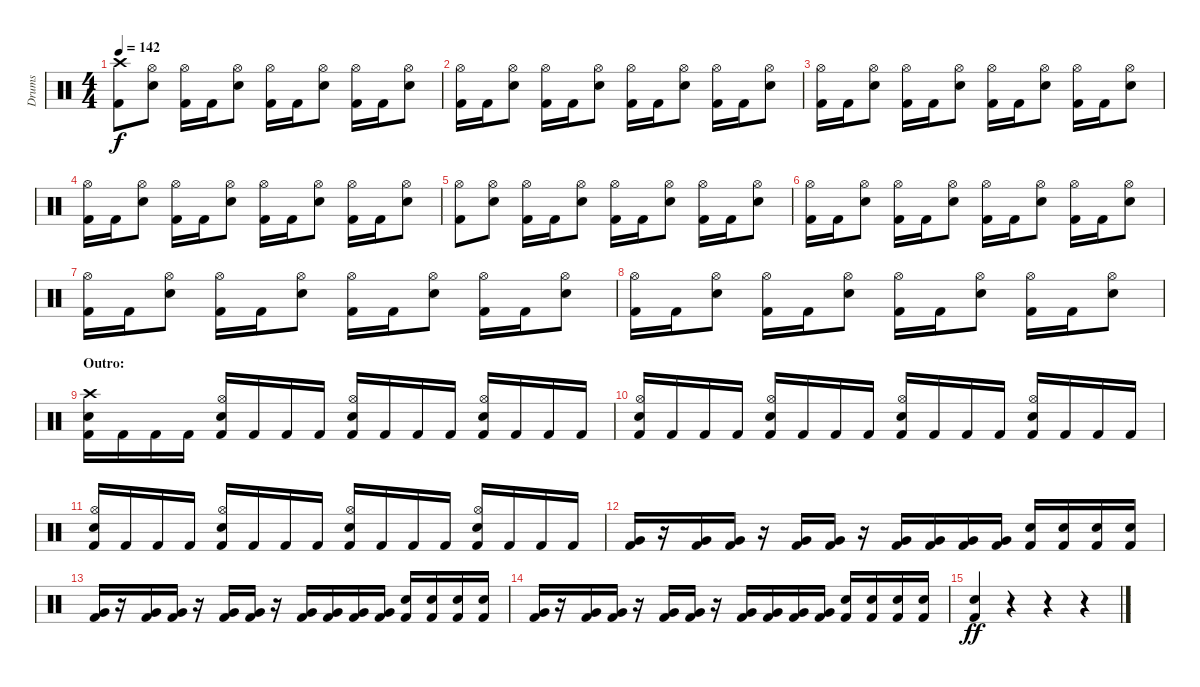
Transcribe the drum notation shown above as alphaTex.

\track ("Drums" "Drums") {instrument percussion}
\staff {score}
\articulation defaults
\ts (4 4)
\tempo 142
\clef neutral
\ks c
("Crash high (hit)" "Kick (hit) 2").8{dy f} ("Hi-Hat (open)" "Electric Snare (hit)").8 ("Hi-Hat (open)" "Kick (hit) 2").16 "Kick (hit) 2".16 ("Hi-Hat (open)" "Electric Snare (hit)").8 ("Hi-Hat (open)" "Kick (hit) 2").16 "Kick (hit) 2".16 ("Hi-Hat (open)" "Electric Snare (hit)").8 ("Hi-Hat (open)" "Kick (hit) 2").16 "Kick (hit) 2".16 ("Hi-Hat (open)" "Electric Snare (hit)").8 |
("Hi-Hat (open)" "Kick (hit) 2").16 "Kick (hit) 2".16 ("Hi-Hat (open)" "Electric Snare (hit)").8 ("Hi-Hat (open)" "Kick (hit) 2").16 "Kick (hit) 2".16 ("Hi-Hat (open)" "Electric Snare (hit)").8 ("Hi-Hat (open)" "Kick (hit) 2").16 "Kick (hit) 2".16 ("Hi-Hat (open)" "Electric Snare (hit)").8 ("Hi-Hat (open)" "Kick (hit) 2").16 "Kick (hit) 2".16 ("Hi-Hat (open)" "Electric Snare (hit)").8 |
("Hi-Hat (open)" "Kick (hit) 2").16 "Kick (hit) 2".16 ("Hi-Hat (open)" "Electric Snare (hit)").8 ("Hi-Hat (open)" "Kick (hit) 2").16 "Kick (hit) 2".16 ("Hi-Hat (open)" "Electric Snare (hit)").8 ("Hi-Hat (open)" "Kick (hit) 2").16 "Kick (hit) 2".16 ("Hi-Hat (open)" "Electric Snare (hit)").8 ("Hi-Hat (open)" "Kick (hit) 2").16 "Kick (hit) 2".16 ("Hi-Hat (open)" "Electric Snare (hit)").8 |
("Hi-Hat (open)" "Kick (hit) 2").16 "Kick (hit) 2".16 ("Hi-Hat (open)" "Electric Snare (hit)").8 ("Hi-Hat (open)" "Kick (hit) 2").16 "Kick (hit) 2".16 ("Hi-Hat (open)" "Electric Snare (hit)").8 ("Hi-Hat (open)" "Kick (hit) 2").16 "Kick (hit) 2".16 ("Hi-Hat (open)" "Electric Snare (hit)").8 ("Hi-Hat (open)" "Kick (hit) 2").16 "Kick (hit) 2".16 ("Hi-Hat (open)" "Electric Snare (hit)").8 |
("Hi-Hat (open)" "Kick (hit) 2").8 ("Hi-Hat (open)" "Electric Snare (hit)").8 ("Hi-Hat (open)" "Kick (hit) 2").16 "Kick (hit) 2".16 ("Hi-Hat (open)" "Electric Snare (hit)").8 ("Hi-Hat (open)" "Kick (hit) 2").16 "Kick (hit) 2".16 ("Hi-Hat (open)" "Electric Snare (hit)").8 ("Hi-Hat (open)" "Kick (hit) 2").16 "Kick (hit) 2".16 ("Hi-Hat (open)" "Electric Snare (hit)").8 |
("Hi-Hat (open)" "Kick (hit) 2").16 "Kick (hit) 2".16 ("Hi-Hat (open)" "Electric Snare (hit)").8 ("Hi-Hat (open)" "Kick (hit) 2").16 "Kick (hit) 2".16 ("Hi-Hat (open)" "Electric Snare (hit)").8 ("Hi-Hat (open)" "Kick (hit) 2").16 "Kick (hit) 2".16 ("Hi-Hat (open)" "Electric Snare (hit)").8 ("Hi-Hat (open)" "Kick (hit) 2").16 "Kick (hit) 2".16 ("Hi-Hat (open)" "Electric Snare (hit)").8 |
("Hi-Hat (open)" "Kick (hit) 2").16 "Kick (hit) 2".16 ("Hi-Hat (open)" "Electric Snare (hit)").8 ("Hi-Hat (open)" "Kick (hit) 2").16 "Kick (hit) 2".16 ("Hi-Hat (open)" "Electric Snare (hit)").8 ("Hi-Hat (open)" "Kick (hit) 2").16 "Kick (hit) 2".16 ("Hi-Hat (open)" "Electric Snare (hit)").8 ("Hi-Hat (open)" "Kick (hit) 2").16 "Kick (hit) 2".16 ("Hi-Hat (open)" "Electric Snare (hit)").8 |
("Hi-Hat (open)" "Kick (hit) 2").16 "Kick (hit) 2".16 ("Hi-Hat (open)" "Electric Snare (hit)").8 ("Hi-Hat (open)" "Kick (hit) 2").16 "Kick (hit) 2".16 ("Hi-Hat (open)" "Electric Snare (hit)").8 ("Hi-Hat (open)" "Kick (hit) 2").16 "Kick (hit) 2".16 ("Hi-Hat (open)" "Electric Snare (hit)").8 ("Hi-Hat (open)" "Kick (hit) 2").16 "Kick (hit) 2".16 ("Hi-Hat (open)" "Electric Snare (hit)").8 |
\section ("" "Outro:")
("Crash high (hit)" "Electric Snare (hit)" "Kick (hit) 2").16 "Kick (hit) 2".16 "Kick (hit) 2".16 "Kick (hit) 2".16 ("Hi-Hat (open)" "Electric Snare (hit)" "Kick (hit) 2").16 "Kick (hit) 2".16 "Kick (hit) 2".16 "Kick (hit) 2".16 ("Hi-Hat (open)" "Electric Snare (hit)" "Kick (hit) 2").16 "Kick (hit) 2".16 "Kick (hit) 2".16 "Kick (hit) 2".16 ("Hi-Hat (open)" "Electric Snare (hit)" "Kick (hit) 2").16 "Kick (hit) 2".16 "Kick (hit) 2".16 "Kick (hit) 2".16 |
("Hi-Hat (open)" "Electric Snare (hit)" "Kick (hit) 2").16 "Kick (hit) 2".16 "Kick (hit) 2".16 "Kick (hit) 2".16 ("Hi-Hat (open)" "Electric Snare (hit)" "Kick (hit) 2").16 "Kick (hit) 2".16 "Kick (hit) 2".16 "Kick (hit) 2".16 ("Hi-Hat (open)" "Electric Snare (hit)" "Kick (hit) 2").16 "Kick (hit) 2".16 "Kick (hit) 2".16 "Kick (hit) 2".16 ("Hi-Hat (open)" "Electric Snare (hit)" "Kick (hit) 2").16 "Kick (hit) 2".16 "Kick (hit) 2".16 "Kick (hit) 2".16 |
("Hi-Hat (open)" "Electric Snare (hit)" "Kick (hit) 2").16 "Kick (hit) 2".16 "Kick (hit) 2".16 "Kick (hit) 2".16 ("Hi-Hat (open)" "Electric Snare (hit)" "Kick (hit) 2").16 "Kick (hit) 2".16 "Kick (hit) 2".16 "Kick (hit) 2".16 ("Hi-Hat (open)" "Electric Snare (hit)" "Kick (hit) 2").16 "Kick (hit) 2".16 "Kick (hit) 2".16 "Kick (hit) 2".16 ("Hi-Hat (open)" "Electric Snare (hit)" "Kick (hit) 2").16 "Kick (hit) 2".16 "Kick (hit) 2".16 "Kick (hit) 2".16 |
("Very Low Tom (hit)" "Kick (hit) 2").16 r.16 ("Very Low Tom (hit)" "Kick (hit) 2").16 ("Very Low Tom (hit)" "Kick (hit) 2").16 r.16 ("Very Low Tom (hit)" "Kick (hit) 2").16 ("Very Low Tom (hit)" "Kick (hit) 2").16 r.16 ("Very Low Tom (hit)" "Kick (hit) 2").16 ("Very Low Tom (hit)" "Kick (hit) 2").16 ("Very Low Tom (hit)" "Kick (hit) 2").16 ("Very Low Tom (hit)" "Kick (hit) 2").16 ("Electric Snare (hit)" "Kick (hit) 2").16 ("Electric Snare (hit)" "Kick (hit) 2").16 ("Electric Snare (hit)" "Kick (hit) 2").16 ("Electric Snare (hit)" "Kick (hit) 2").16 |
("Very Low Tom (hit)" "Kick (hit) 2").16 r.16 ("Very Low Tom (hit)" "Kick (hit) 2").16 ("Very Low Tom (hit)" "Kick (hit) 2").16 r.16 ("Very Low Tom (hit)" "Kick (hit) 2").16 ("Very Low Tom (hit)" "Kick (hit) 2").16 r.16 ("Very Low Tom (hit)" "Kick (hit) 2").16 ("Very Low Tom (hit)" "Kick (hit) 2").16 ("Very Low Tom (hit)" "Kick (hit) 2").16 ("Very Low Tom (hit)" "Kick (hit) 2").16 ("Electric Snare (hit)" "Kick (hit) 2").16 ("Electric Snare (hit)" "Kick (hit) 2").16 ("Electric Snare (hit)" "Kick (hit) 2").16 ("Electric Snare (hit)" "Kick (hit) 2").16 |
("Very Low Tom (hit)" "Kick (hit) 2").16 r.16 ("Very Low Tom (hit)" "Kick (hit) 2").16 ("Very Low Tom (hit)" "Kick (hit) 2").16 r.16 ("Very Low Tom (hit)" "Kick (hit) 2").16 ("Very Low Tom (hit)" "Kick (hit) 2").16 r.16 ("Very Low Tom (hit)" "Kick (hit) 2").16 ("Very Low Tom (hit)" "Kick (hit) 2").16 ("Very Low Tom (hit)" "Kick (hit) 2").16 ("Very Low Tom (hit)" "Kick (hit) 2").16 ("Electric Snare (hit)" "Kick (hit) 2").16 ("Electric Snare (hit)" "Kick (hit) 2").16 ("Electric Snare (hit)" "Kick (hit) 2").16 ("Electric Snare (hit)" "Kick (hit) 2").16 |
("Electric Snare (hit)" "Kick (hit) 2").4{dy ff} r.4 r.4 r.4
